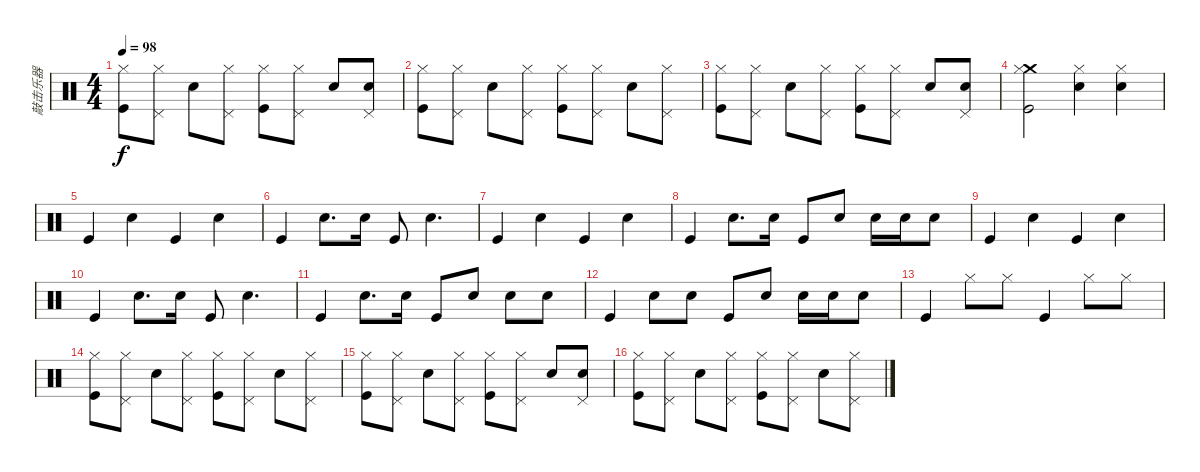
\track ("敲击乐器" "敲击乐器") {instrument percussion}
\staff {score}
\articulation defaults
\ts (4 4)
\tempo 98
\clef neutral
\ks c
("Hi-Hat (closed)" "Kick (hit)").8{dy f} ("Pedal Hi-Hat (hit)" "Hi-Hat (closed)").8 "Snare (hit) 2".8 ("Pedal Hi-Hat (hit)" "Hi-Hat (closed)").8 ("Hi-Hat (closed)" "Kick (hit)").8 ("Pedal Hi-Hat (hit)" "Hi-Hat (closed)").8 "Snare (hit) 2".8 ("Pedal Hi-Hat (hit)" "Snare (hit) 2").8 |
("Hi-Hat (closed)" "Kick (hit)").8 ("Pedal Hi-Hat (hit)" "Hi-Hat (closed)").8 "Snare (hit) 2".8 ("Pedal Hi-Hat (hit)" "Hi-Hat (closed)").8 ("Hi-Hat (closed)" "Kick (hit)").8 ("Pedal Hi-Hat (hit)" "Hi-Hat (closed)").8 "Snare (hit) 2".8 ("Pedal Hi-Hat (hit)" "Hi-Hat (closed)").8 |
("Hi-Hat (closed)" "Kick (hit)").8 ("Pedal Hi-Hat (hit)" "Hi-Hat (closed)").8 "Snare (hit) 2".8 ("Pedal Hi-Hat (hit)" "Hi-Hat (closed)").8 ("Hi-Hat (closed)" "Kick (hit)").8 ("Pedal Hi-Hat (hit)" "Hi-Hat (closed)").8 "Snare (hit) 2".8 ("Pedal Hi-Hat (hit)" "Snare (hit) 2").8 |
("Crash medium (hit)" "Hi-Hat (closed)" "Kick (hit)").2 ("Hi-Hat (closed)" "Snare (hit) 2").4 ("Hi-Hat (closed)" "Snare (hit) 2").4 |
"Kick (hit)".4 "Snare (hit) 2".4 "Kick (hit)".4 "Snare (hit) 2".4 |
"Kick (hit)".4 "Snare (hit) 2".8{d} "Snare (hit) 2".16 "Kick (hit)".8 "Snare (hit) 2".4{d} |
"Kick (hit)".4 "Snare (hit) 2".4 "Kick (hit)".4 "Snare (hit) 2".4 |
"Kick (hit)".4 "Snare (hit) 2".8{d} "Snare (hit) 2".16 "Kick (hit)".8 "Snare (hit) 2".8 "Snare (hit) 2".16 "Snare (hit) 2".16 "Snare (hit) 2".8 |
"Kick (hit)".4 "Snare (hit) 2".4 "Kick (hit)".4 "Snare (hit) 2".4 |
"Kick (hit)".4 "Snare (hit) 2".8{d} "Snare (hit) 2".16 "Kick (hit)".8 "Snare (hit) 2".4{d} |
"Kick (hit)".4 "Snare (hit) 2".8{d} "Snare (hit) 2".16 "Kick (hit)".8 "Snare (hit) 2".8 "Snare (hit) 2".8 "Snare (hit) 2".8 |
"Kick (hit)".4 "Snare (hit) 2".8 "Snare (hit) 2".8 "Kick (hit)".8 "Snare (hit) 2".8 "Snare (hit) 2".16 "Snare (hit) 2".16 "Snare (hit) 2".8 |
"Kick (hit)".4 "Hi-Hat (closed)".8 "Hi-Hat (closed)".8 "Kick (hit)".4 "Hi-Hat (closed)".8 "Hi-Hat (closed)".8 |
("Hi-Hat (closed)" "Kick (hit)").8 ("Pedal Hi-Hat (hit)" "Hi-Hat (closed)").8 "Snare (hit) 2".8 ("Pedal Hi-Hat (hit)" "Hi-Hat (closed)").8 ("Hi-Hat (closed)" "Kick (hit)").8 ("Pedal Hi-Hat (hit)" "Hi-Hat (closed)").8 "Snare (hit) 2".8 ("Pedal Hi-Hat (hit)" "Hi-Hat (closed)").8 |
("Hi-Hat (closed)" "Kick (hit)").8 ("Pedal Hi-Hat (hit)" "Hi-Hat (closed)").8 "Snare (hit) 2".8 ("Pedal Hi-Hat (hit)" "Hi-Hat (closed)").8 ("Hi-Hat (closed)" "Kick (hit)").8 ("Pedal Hi-Hat (hit)" "Hi-Hat (closed)").8 "Snare (hit) 2".8 ("Pedal Hi-Hat (hit)" "Snare (hit) 2").8 |
("Hi-Hat (closed)" "Kick (hit)").8 ("Pedal Hi-Hat (hit)" "Hi-Hat (closed)").8 "Snare (hit) 2".8 ("Pedal Hi-Hat (hit)" "Hi-Hat (closed)").8 ("Hi-Hat (closed)" "Kick (hit)").8 ("Pedal Hi-Hat (hit)" "Hi-Hat (closed)").8 "Snare (hit) 2".8 ("Pedal Hi-Hat (hit)" "Hi-Hat (closed)").8
